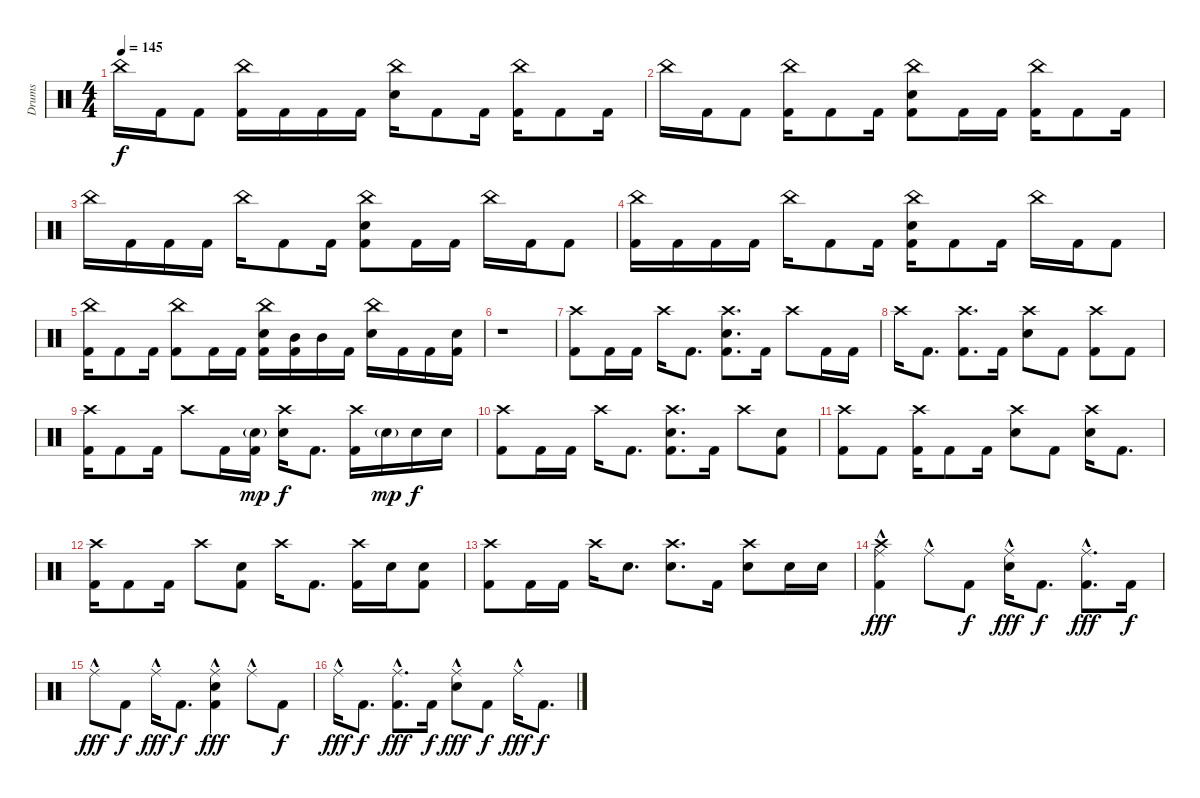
\track ("Drums" "Drums") {instrument percussion}
\staff {score}
\articulation defaults
\ts (4 4)
\tempo 145
\clef neutral
\ks c "China (hit)".16{dy f} "Kick (hit) 2".16 "Kick (hit) 2".8
("China (hit)" "Kick (hit) 2").16 "Kick (hit) 2".16 "Kick (hit) 2".16 "Kick (hit) 2".16 ("China (hit)" "Snare (hit) 2").16 "Kick (hit) 2".8 "Kick (hit) 2".16 ("China (hit)" "Kick (hit) 2").16 "Kick (hit) 2".8 "Kick (hit) 2".16 |
"China (hit)".16 "Kick (hit) 2".16 "Kick (hit) 2".8 ("China (hit)" "Kick (hit) 2").16 "Kick (hit) 2".8 "Kick (hit) 2".16 ("China (hit)" "Snare (hit) 2" "Kick (hit) 2").8 "Kick (hit) 2".16 "Kick (hit) 2".16 ("China (hit)" "Kick (hit) 2").16 "Kick (hit) 2".8 "Kick (hit) 2".16 |
"China (hit)".16 "Kick (hit) 2".16 "Kick (hit) 2".16 "Kick (hit) 2".16 "China (hit)".16 "Kick (hit) 2".8 "Kick (hit) 2".16 ("China (hit)" "Snare (hit) 2" "Kick (hit) 2").8 "Kick (hit) 2".16 "Kick (hit) 2".16 "China (hit)".16 "Kick (hit) 2".16 "Kick (hit) 2".8 |
("China (hit)" "Kick (hit) 2").16 "Kick (hit) 2".16 "Kick (hit) 2".16 "Kick (hit) 2".16 "China (hit)".16 "Kick (hit) 2".8 "Kick (hit) 2".16 ("China (hit)" "Snare (hit) 2" "Kick (hit) 2").16 "Kick (hit) 2".8 "Kick (hit) 2".16 "China (hit)".16 "Kick (hit) 2".16 "Kick (hit) 2".8 |
("China (hit)" "Kick (hit) 2").16 "Kick (hit) 2".8 "Kick (hit) 2".16 ("China (hit)" "Kick (hit) 2").8 "Kick (hit) 2".16 "Kick (hit) 2".16 ("China (hit)" "Snare (hit) 2" "Kick (hit) 2").16 ("Mid Tom (hit)" "Kick (hit) 2").16 "Mid Tom (hit)".16 "Kick (hit) 2".16 ("China (hit)" "Snare (hit) 2").16 "Kick (hit) 2".16 "Kick (hit) 2".16 ("Snare (hit) 2" "Kick (hit) 2").16 |
r.1 |
("Crash high (hit)" "Kick (hit) 2").8 "Kick (hit) 2".16 "Kick (hit) 2".16 "Crash high (hit)".16 "Kick (hit) 2".8{d} ("Crash high (hit)" "Snare (hit) 2" "Kick (hit) 2").8{d} "Kick (hit) 2".16 "Crash high (hit)".8 "Kick (hit) 2".16 "Kick (hit) 2".16 |
"Crash high (hit)".16 "Kick (hit) 2".8{d} ("Crash high (hit)" "Kick (hit) 2").8{d} "Kick (hit) 2".16 ("Crash high (hit)" "Snare (hit) 2").8 "Kick (hit) 2".8 ("Crash high (hit)" "Kick (hit) 2").8 "Kick (hit) 2".8 |
("Crash high (hit)" "Kick (hit) 2").16 "Kick (hit) 2".8 "Kick (hit) 2".16 "Crash high (hit)".8 "Kick (hit) 2".16 ("Snare (hit) 2"{g} "Kick (hit) 2").16{dy mp} ("Crash high (hit)" "Snare (hit) 2").16{dy f} "Kick (hit) 2".8{d} ("Crash high (hit)" "Kick (hit) 2").16 "Snare (hit) 2"{g}.16{dy mp} "Snare (hit) 2".16{dy f} "Snare (hit) 2".16 |
("Crash high (hit)" "Kick (hit) 2").8 "Kick (hit) 2".16 "Kick (hit) 2".16 "Crash high (hit)".16 "Kick (hit) 2".8{d} ("Crash high (hit)" "Snare (hit) 2" "Kick (hit) 2").8{d} "Kick (hit) 2".16 "Crash high (hit)".8 ("Snare (hit) 2" "Kick (hit) 2").8 |
("Crash high (hit)" "Kick (hit) 2").8 "Kick (hit) 2".8 ("Crash high (hit)" "Kick (hit) 2").16 "Kick (hit) 2".8 "Kick (hit) 2".16 ("Crash high (hit)" "Snare (hit) 2").8 "Kick (hit) 2".8 ("Crash high (hit)" "Snare (hit) 2").16 "Kick (hit) 2".8{d} |
("Crash high (hit)" "Kick (hit) 2").16 "Kick (hit) 2".8 "Kick (hit) 2".16 "Crash high (hit)".8 ("Snare (hit) 2" "Kick (hit) 2").8 "Crash high (hit)".16 "Kick (hit) 2".8{d} ("Crash high (hit)" "Kick (hit) 2").16 "Snare (hit) 2".16 ("Snare (hit) 2" "Kick (hit) 2").8 |
("Crash high (hit)" "Kick (hit) 2").8 "Kick (hit) 2".16 "Kick (hit) 2".16 "Crash high (hit)".16 "Snare (hit) 2".8{d} ("Crash high (hit)" "Snare (hit) 2").8{d} "Kick (hit) 2".16 ("Crash high (hit)" "Snare (hit) 2").8 "Snare (hit) 2".16 "Snare (hit) 2".16 |
("Ride (middle)"{hac} "Crash high (hit)" "Kick (hit) 2").4{dy fff} "Ride (middle)"{hac}.8 "Kick (hit) 2".8{dy f} ("Ride (middle)"{hac} "Snare (hit) 2").16{dy fff} "Kick (hit) 2".8{d dy f} ("Ride (middle)"{hac} "Kick (hit) 2").8{d dy fff} "Kick (hit) 2".16{dy f} |
"Ride (middle)"{hac}.8{dy fff} "Kick (hit) 2".8{dy f} "Ride (middle)"{hac}.16{dy fff} "Kick (hit) 2".8{d dy f} ("Ride (middle)"{hac} "Snare (hit) 2" "Kick (hit) 2").4{dy fff} "Ride (middle)"{hac}.8 "Kick (hit) 2".8{dy f} |
"Ride (middle)"{hac}.16{dy fff} "Kick (hit) 2".8{d dy f} ("Ride (middle)"{hac} "Kick (hit) 2").8{d dy fff} "Kick (hit) 2".16{dy f} ("Ride (middle)"{hac} "Snare (hit) 2").8{dy fff} "Kick (hit) 2".8{dy f} "Ride (middle)"{hac}.16{dy fff} "Kick (hit) 2".8{d dy f}
